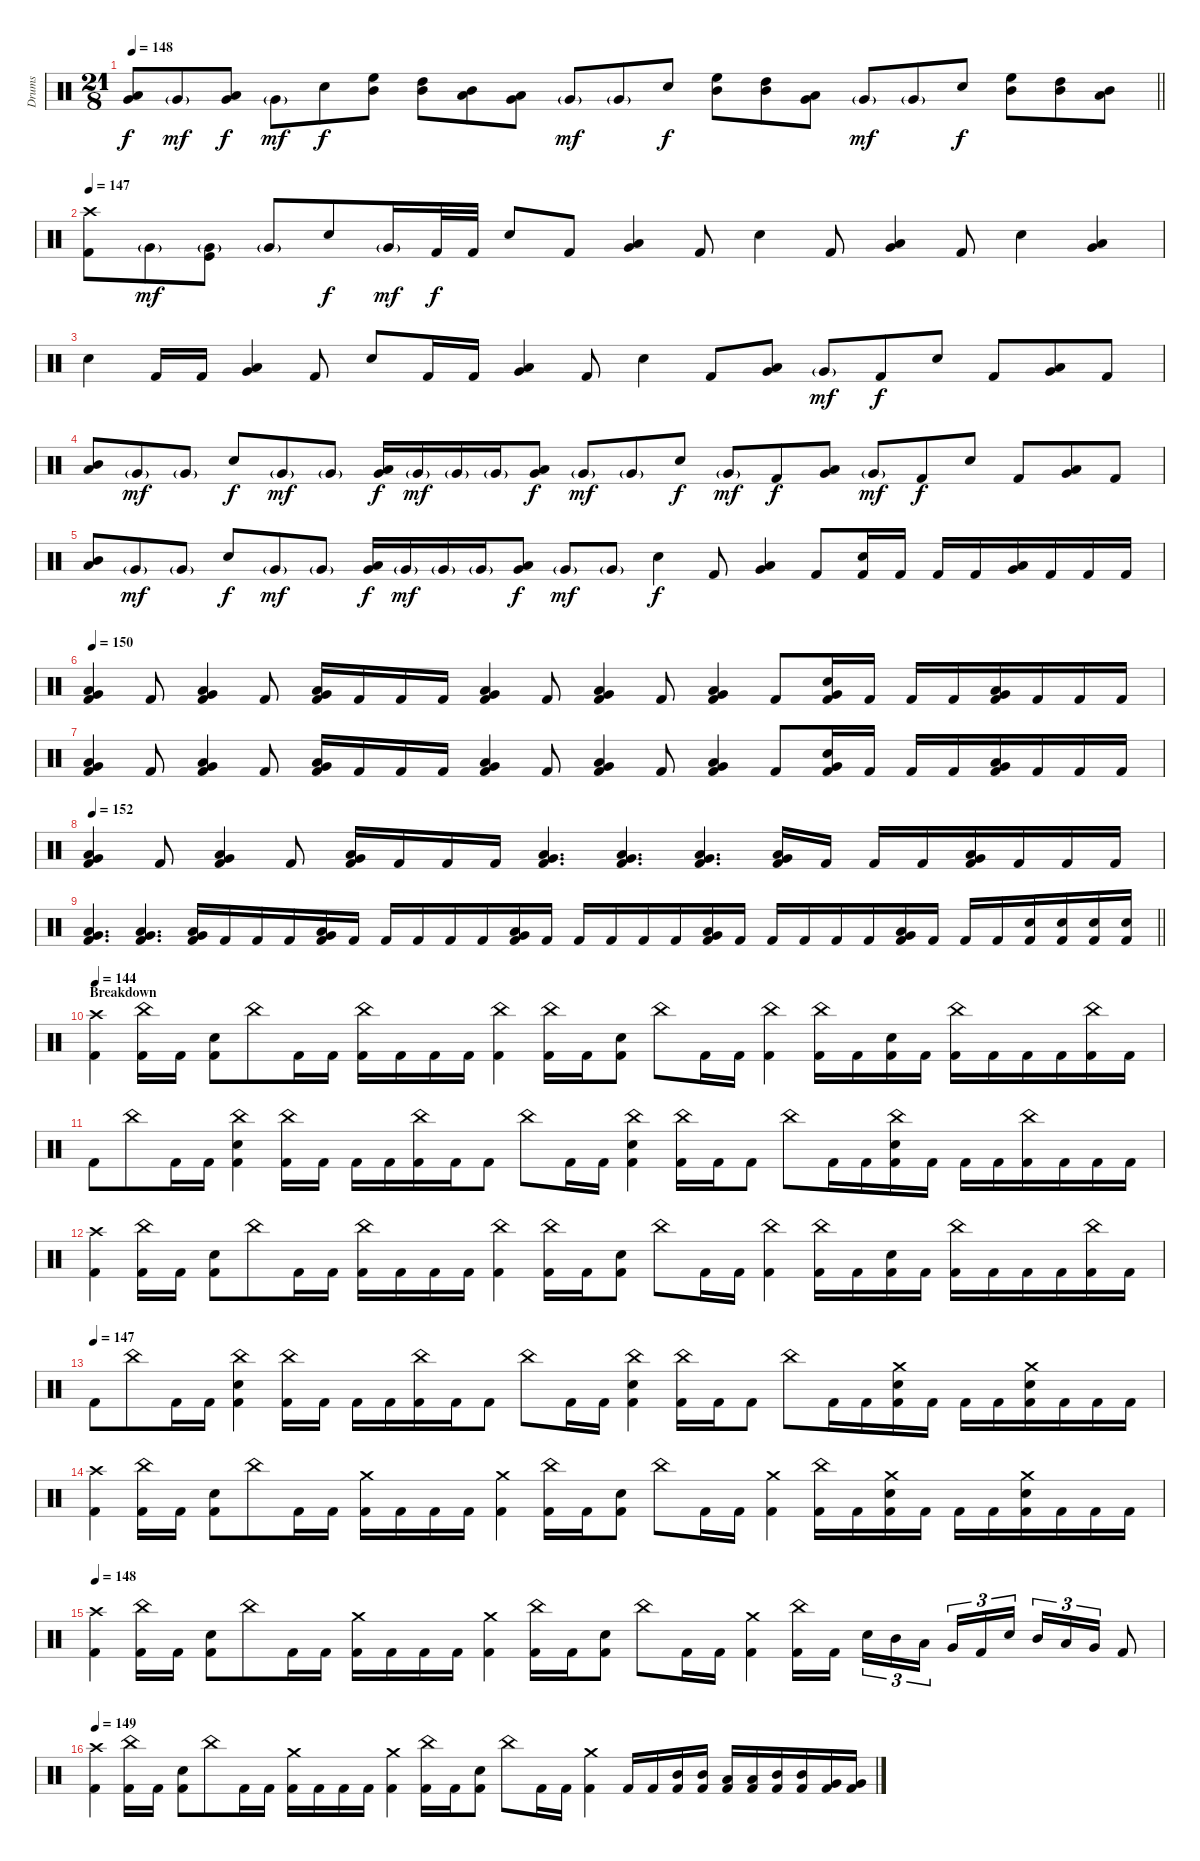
\track ("Drums" "Drums") {instrument percussion}
\staff {score}
\articulation defaults
\ts (21 8)
\tempo 148
\clef neutral
\barLineRight lightlight
\ks c
("Low Tom (hit)" "Very Low Tom (hit)").8{dy f} "Very Low Tom (hit)"{g}.8{dy mf} ("Low Tom (hit)" "Very Low Tom (hit)").8{dy f} "Very Low Tom (hit)"{g}.8{dy mf} "Snare (hit) 2".8{dy f} ("High Floor Tom (hit)" "Mid Tom (hit)").8 ("High Tom (hit)" "Mid Tom (hit)").8 ("Mid Tom (hit)" "Low Tom (hit)").8 ("Low Tom (hit)" "Very Low Tom (hit)").8 "Very Low Tom (hit)"{g}.8{dy mf} "Very Low Tom (hit)"{g}.8 "Snare (hit) 2".8{dy f} ("High Floor Tom (hit)" "Mid Tom (hit)").8 ("High Tom (hit)" "Mid Tom (hit)").8 ("Low Tom (hit)" "Very Low Tom (hit)").8 "Very Low Tom (hit)"{g}.8{dy mf} "Very Low Tom (hit)"{g}.8 "Snare (hit) 2".8{dy f} ("High Floor Tom (hit)" "Mid Tom (hit)").8 ("High Tom (hit)" "Mid Tom (hit)").8 ("Mid Tom (hit)" "Low Tom (hit)").8 |
\section ("" "")
\tempo 147
("Crash high (hit)" "Kick (hit) 2").8 "Very Low Tom (hit)"{g}.8{dy mf} ("Very Low Tom (hit)"{g} "Kick (hit)").8 "Very Low Tom (hit)"{g}.8 "Snare (hit) 2".8{dy f} "Very Low Tom (hit)"{g}.16{dy mf} "Kick (hit) 2".32{dy f} "Kick (hit) 2".32 "Snare (hit) 2".8 "Kick (hit) 2".8 ("Low Tom (hit)" "Very Low Tom (hit)").4 "Kick (hit) 2".8 "Snare (hit) 2".4 "Kick (hit) 2".8 ("Low Tom (hit)" "Very Low Tom (hit)").4 "Kick (hit) 2".8 "Snare (hit) 2".4 ("Low Tom (hit)" "Very Low Tom (hit)").4 |
"Snare (hit) 2".4 "Kick (hit) 2".16 "Kick (hit) 2".16 ("Low Tom (hit)" "Very Low Tom (hit)").4 "Kick (hit) 2".8 "Snare (hit) 2".8 "Kick (hit) 2".16 "Kick (hit) 2".16 ("Low Tom (hit)" "Very Low Tom (hit)").4 "Kick (hit) 2".8 "Snare (hit) 2".4 "Kick (hit) 2".8 ("Low Tom (hit)" "Very Low Tom (hit)").8 "Very Low Tom (hit)"{g}.8{dy mf} "Kick (hit) 2".8{dy f} "Snare (hit) 2".8 "Kick (hit) 2".8 ("Low Tom (hit)" "Very Low Tom (hit)").8 "Kick (hit) 2".8 |
("Mid Tom (hit)" "Low Tom (hit)").8 "Very Low Tom (hit)"{g}.8{dy mf} "Very Low Tom (hit)"{g}.8 "Snare (hit) 2".8{dy f} "Very Low Tom (hit)"{g}.8{dy mf} "Very Low Tom (hit)"{g}.8 ("Low Tom (hit)" "Very Low Tom (hit)").16{dy f} "Very Low Tom (hit)"{g}.16{dy mf} "Very Low Tom (hit)"{g}.16 "Very Low Tom (hit)"{g}.16 ("Low Tom (hit)" "Very Low Tom (hit)").8{dy f} "Very Low Tom (hit)"{g}.8{dy mf} "Very Low Tom (hit)"{g}.8 "Snare (hit) 2".8{dy f} "Very Low Tom (hit)"{g}.8{dy mf} "Kick (hit) 2".8{dy f} ("Low Tom (hit)" "Very Low Tom (hit)").8 "Very Low Tom (hit)"{g}.8{dy mf} "Kick (hit) 2".8{dy f} "Snare (hit) 2".8 "Kick (hit) 2".8 ("Low Tom (hit)" "Very Low Tom (hit)").8 "Kick (hit) 2".8 |
("Mid Tom (hit)" "Low Tom (hit)").8 "Very Low Tom (hit)"{g}.8{dy mf} "Very Low Tom (hit)"{g}.8 "Snare (hit) 2".8{dy f} "Very Low Tom (hit)"{g}.8{dy mf} "Very Low Tom (hit)"{g}.8 ("Low Tom (hit)" "Very Low Tom (hit)").16{dy f} "Very Low Tom (hit)"{g}.16{dy mf} "Very Low Tom (hit)"{g}.16 "Very Low Tom (hit)"{g}.16 ("Low Tom (hit)" "Very Low Tom (hit)").8{dy f} "Very Low Tom (hit)"{g}.8{dy mf} "Very Low Tom (hit)"{g}.8 "Snare (hit) 2".4{dy f} "Kick (hit) 2".8 ("Low Tom (hit)" "Very Low Tom (hit)").4 "Kick (hit) 2".8 ("Snare (hit) 2" "Kick (hit) 2").16 "Kick (hit) 2".16 "Kick (hit) 2".16 "Kick (hit) 2".16 ("Low Tom (hit)" "Very Low Tom (hit)").16 "Kick (hit) 2".16 "Kick (hit) 2".16 "Kick (hit) 2".16 |
\tempo 150
("Low Tom (hit)" "Very Low Tom (hit)" "Kick (hit) 2").4 "Kick (hit) 2".8 ("Low Tom (hit)" "Very Low Tom (hit)" "Kick (hit) 2").4 "Kick (hit) 2".8 ("Low Tom (hit)" "Very Low Tom (hit)" "Kick (hit) 2").16 "Kick (hit) 2".16 "Kick (hit) 2".16 "Kick (hit) 2".16 ("Low Tom (hit)" "Very Low Tom (hit)" "Kick (hit) 2").4 "Kick (hit) 2".8 ("Low Tom (hit)" "Very Low Tom (hit)" "Kick (hit) 2").4 "Kick (hit) 2".8 ("Low Tom (hit)" "Very Low Tom (hit)" "Kick (hit) 2").4 "Kick (hit) 2".8 ("Snare (hit) 2" "Very Low Tom (hit)" "Kick (hit) 2").16 "Kick (hit) 2".16 "Kick (hit) 2".16 "Kick (hit) 2".16 ("Low Tom (hit)" "Very Low Tom (hit)" "Kick (hit) 2").16 "Kick (hit) 2".16 "Kick (hit) 2".16 "Kick (hit) 2".16 |
("Low Tom (hit)" "Very Low Tom (hit)" "Kick (hit) 2").4 "Kick (hit) 2".8 ("Low Tom (hit)" "Very Low Tom (hit)" "Kick (hit) 2").4 "Kick (hit) 2".8 ("Low Tom (hit)" "Very Low Tom (hit)" "Kick (hit) 2").16 "Kick (hit) 2".16 "Kick (hit) 2".16 "Kick (hit) 2".16 ("Low Tom (hit)" "Very Low Tom (hit)" "Kick (hit) 2").4 "Kick (hit) 2".8 ("Low Tom (hit)" "Very Low Tom (hit)" "Kick (hit) 2").4 "Kick (hit) 2".8 ("Low Tom (hit)" "Very Low Tom (hit)" "Kick (hit) 2").4 "Kick (hit) 2".8 ("Snare (hit) 2" "Very Low Tom (hit)" "Kick (hit) 2").16 "Kick (hit) 2".16 "Kick (hit) 2".16 "Kick (hit) 2".16 ("Low Tom (hit)" "Very Low Tom (hit)" "Kick (hit) 2").16 "Kick (hit) 2".16 "Kick (hit) 2".16 "Kick (hit) 2".16 |
\tempo 152
("Low Tom (hit)" "Very Low Tom (hit)" "Kick (hit) 2").4 "Kick (hit) 2".8 ("Low Tom (hit)" "Very Low Tom (hit)" "Kick (hit) 2").4 "Kick (hit) 2".8 ("Low Tom (hit)" "Very Low Tom (hit)" "Kick (hit) 2").16 "Kick (hit) 2".16 "Kick (hit) 2".16 "Kick (hit) 2".16 ("Low Tom (hit)" "Very Low Tom (hit)" "Kick (hit) 2").4{d} ("Low Tom (hit)" "Very Low Tom (hit)" "Kick (hit) 2").4{d} ("Low Tom (hit)" "Very Low Tom (hit)" "Kick (hit) 2").4{d} ("Low Tom (hit)" "Very Low Tom (hit)" "Kick (hit) 2").16 "Kick (hit) 2".16 "Kick (hit) 2".16 "Kick (hit) 2".16 ("Low Tom (hit)" "Very Low Tom (hit)" "Kick (hit) 2").16 "Kick (hit) 2".16 "Kick (hit) 2".16 "Kick (hit) 2".16 |
\barLineRight lightlight
("Low Tom (hit)" "Very Low Tom (hit)" "Kick (hit) 2").4{d} ("Low Tom (hit)" "Very Low Tom (hit)" "Kick (hit) 2").4{d} ("Low Tom (hit)" "Very Low Tom (hit)" "Kick (hit) 2").16 "Kick (hit) 2".16 "Kick (hit) 2".16 "Kick (hit) 2".16 ("Low Tom (hit)" "Very Low Tom (hit)" "Kick (hit) 2").16 "Kick (hit) 2".16 "Kick (hit) 2".16 "Kick (hit) 2".16 "Kick (hit) 2".16 "Kick (hit) 2".16 ("Low Tom (hit)" "Very Low Tom (hit)" "Kick (hit) 2").16 "Kick (hit) 2".16 "Kick (hit) 2".16 "Kick (hit) 2".16 "Kick (hit) 2".16 "Kick (hit) 2".16 ("Low Tom (hit)" "Very Low Tom (hit)" "Kick (hit) 2").16 "Kick (hit) 2".16 "Kick (hit) 2".16 "Kick (hit) 2".16 "Kick (hit) 2".16 "Kick (hit) 2".16 ("Low Tom (hit)" "Very Low Tom (hit)" "Kick (hit) 2").16 "Kick (hit) 2".16 "Kick (hit) 2".16 "Kick (hit) 2".16 ("Snare (hit) 2" "Kick (hit) 2").16 ("Snare (hit) 2" "Kick (hit) 2").16 ("Snare (hit) 2" "Kick (hit) 2").16 ("Snare (hit) 2" "Kick (hit) 2").16 |
\section ("" "Breakdown")
\tempo 144
("Crash high (hit)" "Kick (hit) 2").4 ("China (hit)" "Kick (hit) 2").16 "Kick (hit) 2".16 ("Snare (hit) 2" "Kick (hit) 2").8 "China (hit)".8 "Kick (hit) 2".16 "Kick (hit) 2".16 ("China (hit)" "Kick (hit) 2").16 "Kick (hit) 2".16 "Kick (hit) 2".16 "Kick (hit) 2".16 ("China (hit)" "Kick (hit) 2").4 ("China (hit)" "Kick (hit) 2").16 "Kick (hit) 2".16 ("Snare (hit) 2" "Kick (hit) 2").8 "China (hit)".8 "Kick (hit) 2".16 "Kick (hit) 2".16 ("China (hit)" "Kick (hit) 2").4 ("China (hit)" "Kick (hit) 2").16 "Kick (hit) 2".16 ("Snare (hit) 2" "Kick (hit) 2").16 "Kick (hit) 2".16 ("China (hit)" "Kick (hit) 2").16 "Kick (hit) 2".16 "Kick (hit) 2".16 "Kick (hit) 2".16 ("China (hit)" "Kick (hit) 2").16 "Kick (hit) 2".16 |
"Kick (hit) 2".8 "China (hit)".8 "Kick (hit) 2".16 "Kick (hit) 2".16 ("China (hit)" "Snare (hit) 2" "Kick (hit) 2").4 ("China (hit)" "Kick (hit) 2").16 "Kick (hit) 2".16 "Kick (hit) 2".16 "Kick (hit) 2".16 ("China (hit)" "Kick (hit) 2").16 "Kick (hit) 2".16 "Kick (hit) 2".8 "China (hit)".8 "Kick (hit) 2".16 "Kick (hit) 2".16 ("China (hit)" "Snare (hit) 2" "Kick (hit) 2").4 ("China (hit)" "Kick (hit) 2").16 "Kick (hit) 2".16 "Kick (hit) 2".8 "China (hit)".8 "Kick (hit) 2".16 "Kick (hit) 2".16 ("China (hit)" "Snare (hit) 2" "Kick (hit) 2").16 "Kick (hit) 2".16 "Kick (hit) 2".16 "Kick (hit) 2".16 ("China (hit)" "Kick (hit) 2").16 "Kick (hit) 2".16 "Kick (hit) 2".16 "Kick (hit) 2".16 |
("Crash high (hit)" "Kick (hit) 2").4 ("China (hit)" "Kick (hit) 2").16 "Kick (hit) 2".16 ("Snare (hit) 2" "Kick (hit) 2").8 "China (hit)".8 "Kick (hit) 2".16 "Kick (hit) 2".16 ("China (hit)" "Kick (hit) 2").16 "Kick (hit) 2".16 "Kick (hit) 2".16 "Kick (hit) 2".16 ("China (hit)" "Kick (hit) 2").4 ("China (hit)" "Kick (hit) 2").16 "Kick (hit) 2".16 ("Snare (hit) 2" "Kick (hit) 2").8 "China (hit)".8 "Kick (hit) 2".16 "Kick (hit) 2".16 ("China (hit)" "Kick (hit) 2").4 ("China (hit)" "Kick (hit) 2").16 "Kick (hit) 2".16 ("Snare (hit) 2" "Kick (hit) 2").16 "Kick (hit) 2".16 ("China (hit)" "Kick (hit) 2").16 "Kick (hit) 2".16 "Kick (hit) 2".16 "Kick (hit) 2".16 ("China (hit)" "Kick (hit) 2").16 "Kick (hit) 2".16 |
\tempo (147)
"Kick (hit) 2".8 "China (hit)".8 "Kick (hit) 2".16 "Kick (hit) 2".16 ("China (hit)" "Snare (hit) 2" "Kick (hit) 2").4 ("China (hit)" "Kick (hit) 2").16 "Kick (hit) 2".16 "Kick (hit) 2".16 "Kick (hit) 2".16 ("China (hit)" "Kick (hit) 2").16 "Kick (hit) 2".16 "Kick (hit) 2".8 "China (hit)".8 "Kick (hit) 2".16 "Kick (hit) 2".16 ("China (hit)" "Snare (hit) 2" "Kick (hit) 2").4 ("China (hit)" "Kick (hit) 2").16 "Kick (hit) 2".16 "Kick (hit) 2".8 "China (hit)".8 "Kick (hit) 2".16 "Kick (hit) 2".16 ("Crash medium (hit)" "Snare (hit) 2" "Kick (hit) 2").16 "Kick (hit) 2".16 "Kick (hit) 2".16 "Kick (hit) 2".16 ("Crash medium (hit)" "Snare (hit) 2" "Kick (hit) 2").16 "Kick (hit) 2".16 "Kick (hit) 2".16 "Kick (hit) 2".16 |
("Crash high (hit)" "Kick (hit) 2").4 ("China (hit)" "Kick (hit) 2").16 "Kick (hit) 2".16 ("Snare (hit) 2" "Kick (hit) 2").8 "China (hit)".8 "Kick (hit) 2".16 "Kick (hit) 2".16 ("Crash medium (hit)" "Kick (hit) 2").16 "Kick (hit) 2".16 "Kick (hit) 2".16 "Kick (hit) 2".16 ("Crash medium (hit)" "Kick (hit) 2").4 ("China (hit)" "Kick (hit) 2").16 "Kick (hit) 2".16 ("Snare (hit) 2" "Kick (hit) 2").8 "China (hit)".8 "Kick (hit) 2".16 "Kick (hit) 2".16 ("Crash medium (hit)" "Kick (hit) 2").4 ("China (hit)" "Kick (hit) 2").16 "Kick (hit) 2".16 ("Crash medium (hit)" "Snare (hit) 2" "Kick (hit) 2").16 "Kick (hit) 2".16 "Kick (hit) 2".16 "Kick (hit) 2".16 ("Crash medium (hit)" "Snare (hit) 2" "Kick (hit) 2").16 "Kick (hit) 2".16 "Kick (hit) 2".16 "Kick (hit) 2".16 |
\tempo 148
("Crash high (hit)" "Kick (hit) 2").4 ("China (hit)" "Kick (hit) 2").16 "Kick (hit) 2".16 ("Snare (hit) 2" "Kick (hit) 2").8 "China (hit)".8 "Kick (hit) 2".16 "Kick (hit) 2".16 ("Crash medium (hit)" "Kick (hit) 2").16 "Kick (hit) 2".16 "Kick (hit) 2".16 "Kick (hit) 2".16 ("Crash medium (hit)" "Kick (hit) 2").4 ("China (hit)" "Kick (hit) 2").16 "Kick (hit) 2".16 ("Snare (hit) 2" "Kick (hit) 2").8 "China (hit)".8 "Kick (hit) 2".16 "Kick (hit) 2".16 ("Crash medium (hit)" "Kick (hit) 2").4 ("China (hit)" "Kick (hit) 2").16 "Kick (hit) 2".16{beam splitsecondary} "Snare (hit) 2".16{tu (3 2)} "Mid Tom (hit)".16{tu (3 2)} "Low Tom (hit)".16{tu (3 2)} "Very Low Tom (hit)".16{tu (3 2)} "Kick (hit) 2".16{tu (3 2)} "Snare (hit) 2".16{tu (3 2) beam splitsecondary} "Mid Tom (hit)".16{tu (3 2)} "Low Tom (hit)".16{tu (3 2)} "Very Low Tom (hit)".16{tu (3 2)} "Kick (hit) 2".8 |
\tempo 149
("Crash high (hit)" "Kick (hit) 2").4 ("China (hit)" "Kick (hit) 2").16 "Kick (hit) 2".16 ("Snare (hit) 2" "Kick (hit) 2").8 "China (hit)".8 "Kick (hit) 2".16 "Kick (hit) 2".16 ("Crash medium (hit)" "Kick (hit) 2").16 "Kick (hit) 2".16 "Kick (hit) 2".16 "Kick (hit) 2".16 ("Crash medium (hit)" "Kick (hit) 2").4 ("China (hit)" "Kick (hit) 2").16 "Kick (hit) 2".16 ("Snare (hit) 2" "Kick (hit) 2").8 "China (hit)".8 "Kick (hit) 2".16 "Kick (hit) 2".16 ("Crash medium (hit)" "Kick (hit) 2").4 "Kick (hit) 2".16 "Kick (hit) 2".16 ("Mid Tom (hit)" "Kick (hit) 2").16 ("Mid Tom (hit)" "Kick (hit) 2").16 ("Low Tom (hit)" "Kick (hit) 2").16 ("Low Tom (hit)" "Kick (hit) 2").16 ("Mid Tom (hit)" "Kick (hit) 2").16 ("Mid Tom (hit)" "Kick (hit) 2").16 ("Very Low Tom (hit)" "Kick (hit) 2").16 ("Very Low Tom (hit)" "Kick (hit) 2").16
